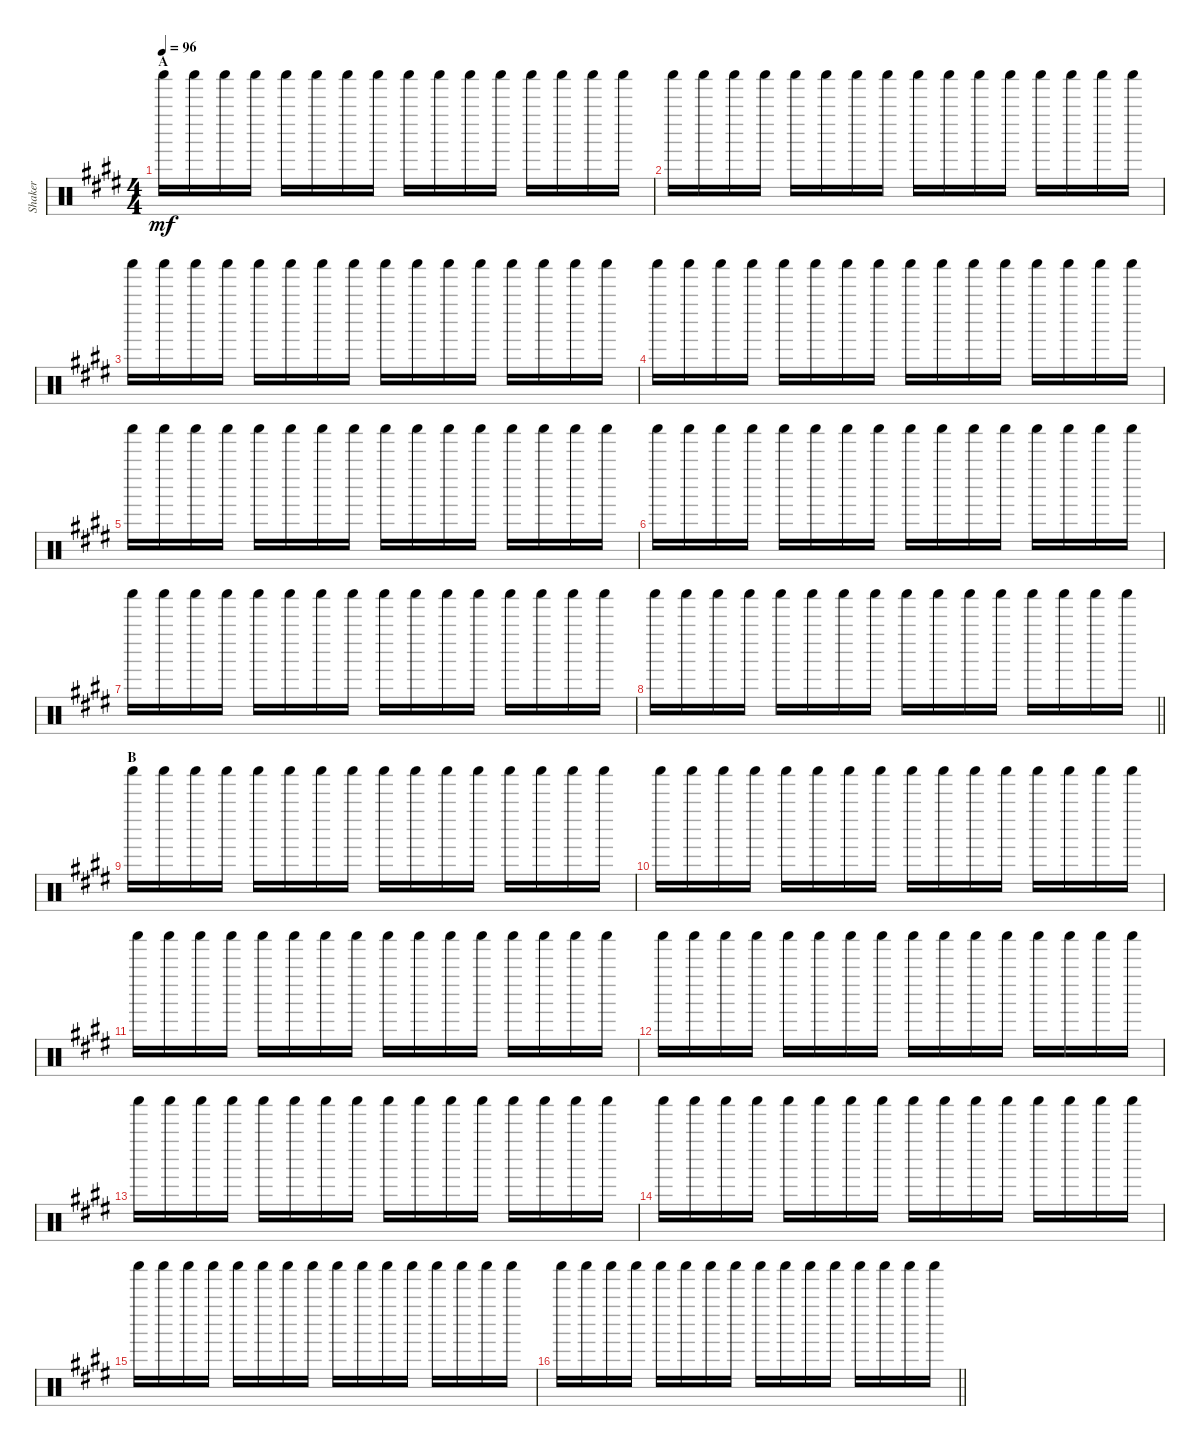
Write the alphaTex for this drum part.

\track ("Shaker" "Shaker") {instrument percussion}
\staff {score}
\articulation defaults
\ts (4 4)
\section ("" "A")
\tempo 96
\clef neutral
\ks e "Shaker (hit)".16{dy mf} "Shaker (hit)".16 "Shaker (hit)".16 "Shaker (hit)".16 "Shaker (hit)".16 "Shaker (hit)".16 "Shaker (hit)".16 "Shaker (hit)".16 "Shaker (hit)".16 "Shaker (hit)".16 "Shaker (hit)".16 "Shaker (hit)".16 "Shaker (hit)".16 "Shaker (hit)".16 "Shaker (hit)".16 "Shaker (hit)".16
|
"Shaker (hit)".16 "Shaker (hit)".16 "Shaker (hit)".16 "Shaker (hit)".16 "Shaker (hit)".16 "Shaker (hit)".16 "Shaker (hit)".16 "Shaker (hit)".16 "Shaker (hit)".16 "Shaker (hit)".16 "Shaker (hit)".16 "Shaker (hit)".16 "Shaker (hit)".16 "Shaker (hit)".16 "Shaker (hit)".16 "Shaker (hit)".16 |
"Shaker (hit)".16 "Shaker (hit)".16 "Shaker (hit)".16 "Shaker (hit)".16 "Shaker (hit)".16 "Shaker (hit)".16 "Shaker (hit)".16 "Shaker (hit)".16 "Shaker (hit)".16 "Shaker (hit)".16 "Shaker (hit)".16 "Shaker (hit)".16 "Shaker (hit)".16 "Shaker (hit)".16 "Shaker (hit)".16 "Shaker (hit)".16 |
"Shaker (hit)".16 "Shaker (hit)".16 "Shaker (hit)".16 "Shaker (hit)".16 "Shaker (hit)".16 "Shaker (hit)".16 "Shaker (hit)".16 "Shaker (hit)".16 "Shaker (hit)".16 "Shaker (hit)".16 "Shaker (hit)".16 "Shaker (hit)".16 "Shaker (hit)".16 "Shaker (hit)".16 "Shaker (hit)".16 "Shaker (hit)".16 |
"Shaker (hit)".16 "Shaker (hit)".16 "Shaker (hit)".16 "Shaker (hit)".16 "Shaker (hit)".16 "Shaker (hit)".16 "Shaker (hit)".16 "Shaker (hit)".16 "Shaker (hit)".16 "Shaker (hit)".16 "Shaker (hit)".16 "Shaker (hit)".16 "Shaker (hit)".16 "Shaker (hit)".16 "Shaker (hit)".16 "Shaker (hit)".16 |
"Shaker (hit)".16 "Shaker (hit)".16 "Shaker (hit)".16 "Shaker (hit)".16 "Shaker (hit)".16 "Shaker (hit)".16 "Shaker (hit)".16 "Shaker (hit)".16 "Shaker (hit)".16 "Shaker (hit)".16 "Shaker (hit)".16 "Shaker (hit)".16 "Shaker (hit)".16 "Shaker (hit)".16 "Shaker (hit)".16 "Shaker (hit)".16 |
"Shaker (hit)".16 "Shaker (hit)".16 "Shaker (hit)".16 "Shaker (hit)".16 "Shaker (hit)".16 "Shaker (hit)".16 "Shaker (hit)".16 "Shaker (hit)".16 "Shaker (hit)".16 "Shaker (hit)".16 "Shaker (hit)".16 "Shaker (hit)".16 "Shaker (hit)".16 "Shaker (hit)".16 "Shaker (hit)".16 "Shaker (hit)".16 |
\barLineRight lightlight "Shaker (hit)".16 "Shaker (hit)".16 "Shaker (hit)".16 "Shaker (hit)".16 "Shaker (hit)".16 "Shaker (hit)".16 "Shaker (hit)".16 "Shaker (hit)".16 "Shaker (hit)".16 "Shaker (hit)".16 "Shaker (hit)".16 "Shaker (hit)".16 "Shaker (hit)".16 "Shaker (hit)".16 "Shaker (hit)".16 "Shaker (hit)".16
|
\section ("" "B")
"Shaker (hit)".16 "Shaker (hit)".16 "Shaker (hit)".16 "Shaker (hit)".16 "Shaker (hit)".16 "Shaker (hit)".16 "Shaker (hit)".16 "Shaker (hit)".16 "Shaker (hit)".16 "Shaker (hit)".16 "Shaker (hit)".16 "Shaker (hit)".16 "Shaker (hit)".16 "Shaker (hit)".16 "Shaker (hit)".16 "Shaker (hit)".16 |
"Shaker (hit)".16 "Shaker (hit)".16 "Shaker (hit)".16 "Shaker (hit)".16 "Shaker (hit)".16 "Shaker (hit)".16 "Shaker (hit)".16 "Shaker (hit)".16 "Shaker (hit)".16 "Shaker (hit)".16 "Shaker (hit)".16 "Shaker (hit)".16 "Shaker (hit)".16 "Shaker (hit)".16 "Shaker (hit)".16 "Shaker (hit)".16 |
"Shaker (hit)".16 "Shaker (hit)".16 "Shaker (hit)".16 "Shaker (hit)".16 "Shaker (hit)".16 "Shaker (hit)".16 "Shaker (hit)".16 "Shaker (hit)".16 "Shaker (hit)".16 "Shaker (hit)".16 "Shaker (hit)".16 "Shaker (hit)".16 "Shaker (hit)".16 "Shaker (hit)".16 "Shaker (hit)".16 "Shaker (hit)".16 |
"Shaker (hit)".16 "Shaker (hit)".16 "Shaker (hit)".16 "Shaker (hit)".16 "Shaker (hit)".16 "Shaker (hit)".16 "Shaker (hit)".16 "Shaker (hit)".16 "Shaker (hit)".16 "Shaker (hit)".16 "Shaker (hit)".16 "Shaker (hit)".16 "Shaker (hit)".16 "Shaker (hit)".16 "Shaker (hit)".16 "Shaker (hit)".16 |
"Shaker (hit)".16 "Shaker (hit)".16 "Shaker (hit)".16 "Shaker (hit)".16 "Shaker (hit)".16 "Shaker (hit)".16 "Shaker (hit)".16 "Shaker (hit)".16 "Shaker (hit)".16 "Shaker (hit)".16 "Shaker (hit)".16 "Shaker (hit)".16 "Shaker (hit)".16 "Shaker (hit)".16 "Shaker (hit)".16 "Shaker (hit)".16 |
"Shaker (hit)".16 "Shaker (hit)".16 "Shaker (hit)".16 "Shaker (hit)".16 "Shaker (hit)".16 "Shaker (hit)".16 "Shaker (hit)".16 "Shaker (hit)".16 "Shaker (hit)".16 "Shaker (hit)".16 "Shaker (hit)".16 "Shaker (hit)".16 "Shaker (hit)".16 "Shaker (hit)".16 "Shaker (hit)".16 "Shaker (hit)".16 |
"Shaker (hit)".16 "Shaker (hit)".16 "Shaker (hit)".16 "Shaker (hit)".16 "Shaker (hit)".16 "Shaker (hit)".16 "Shaker (hit)".16 "Shaker (hit)".16 "Shaker (hit)".16 "Shaker (hit)".16 "Shaker (hit)".16 "Shaker (hit)".16 "Shaker (hit)".16 "Shaker (hit)".16 "Shaker (hit)".16 "Shaker (hit)".16 |
\barLineRight lightlight "Shaker (hit)".16 "Shaker (hit)".16 "Shaker (hit)".16 "Shaker (hit)".16 "Shaker (hit)".16 "Shaker (hit)".16 "Shaker (hit)".16 "Shaker (hit)".16 "Shaker (hit)".16 "Shaker (hit)".16 "Shaker (hit)".16 "Shaker (hit)".16 "Shaker (hit)".16 "Shaker (hit)".16 "Shaker (hit)".16 "Shaker (hit)".16
